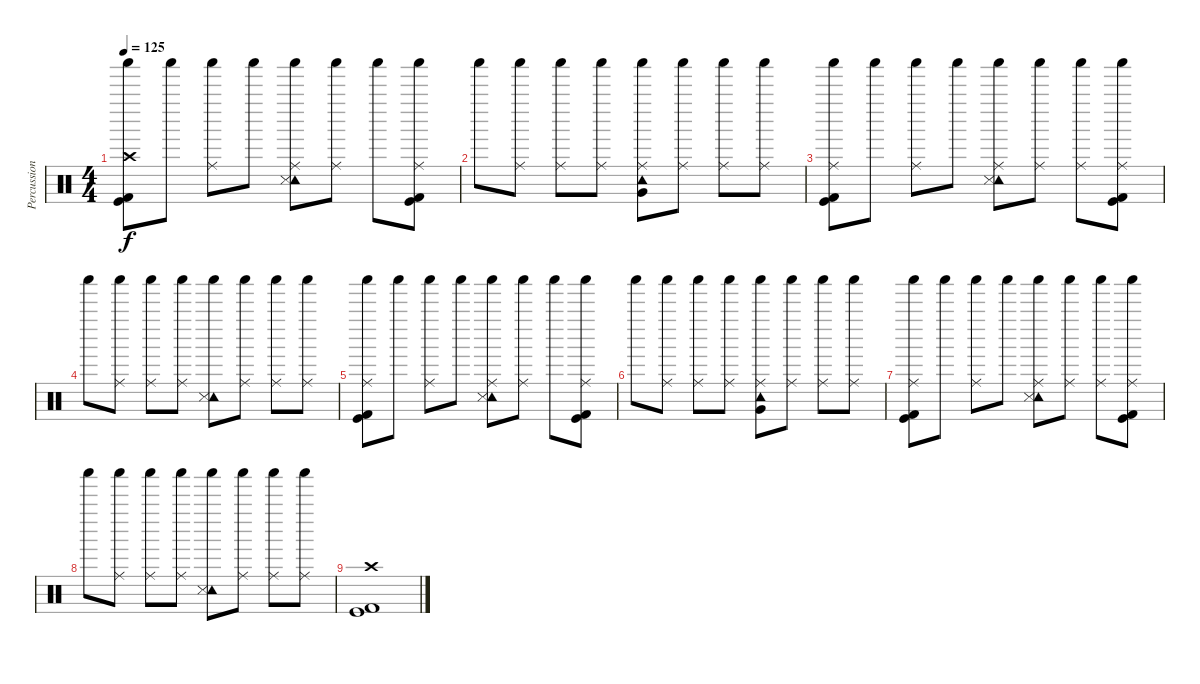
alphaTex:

\track ("Percussioni" "Percussion") {instrument percussion}
\staff {score}
\articulation defaults
\ts (4 4)
\tempo 125
\clef neutral
\ks c
("Crash high (hit)" "Shaker (hit)" "Kick (hit)" "Kick (hit) 2").8{dy f} "Shaker (hit)".8 ("Shaker (hit)" "Ride (middle)").8 "Shaker (hit)".8 ("Shaker (hit)" "Ride (middle)" "Tambourine (hit)" "Snare (side stick) 3").8 ("Shaker (hit)" "Ride (middle)").8 "Shaker (hit)".8 ("Shaker (hit)" "Ride (middle)" "Kick (hit)" "Kick (hit) 2").8 |
"Shaker (hit)".8 ("Shaker (hit)" "Ride (middle)").8 ("Shaker (hit)" "Ride (middle)").8 ("Shaker (hit)" "Ride (middle)").8 ("Shaker (hit)" "Ride (middle)" "Tambourine (hit)" "Very Low Tom (hit)").8 ("Shaker (hit)" "Ride (middle)").8 ("Shaker (hit)" "Ride (middle)").8 ("Shaker (hit)" "Ride (middle)").8 |
("Shaker (hit)" "Ride (middle)" "Kick (hit)" "Kick (hit) 2").8 "Shaker (hit)".8 ("Shaker (hit)" "Ride (middle)").8 "Shaker (hit)".8 ("Shaker (hit)" "Ride (middle)" "Tambourine (hit)" "Snare (side stick) 3").8 ("Shaker (hit)" "Ride (middle)").8 ("Shaker (hit)" "Ride (middle)").8 ("Shaker (hit)" "Ride (middle)" "Kick (hit)" "Kick (hit) 2").8 |
"Shaker (hit)".8 ("Shaker (hit)" "Ride (middle)").8 ("Shaker (hit)" "Ride (middle)").8 ("Shaker (hit)" "Ride (middle)").8 ("Shaker (hit)" "Tambourine (hit)" "Snare (side stick) 3").8 ("Shaker (hit)" "Ride (middle)").8 ("Shaker (hit)" "Ride (middle)").8 ("Shaker (hit)" "Ride (middle)").8 |
("Shaker (hit)" "Ride (middle)" "Kick (hit)" "Kick (hit) 2").8 "Shaker (hit)".8 ("Shaker (hit)" "Ride (middle)").8 "Shaker (hit)".8 ("Shaker (hit)" "Ride (middle)" "Tambourine (hit)" "Snare (side stick) 3").8 ("Shaker (hit)" "Ride (middle)").8 "Shaker (hit)".8 ("Shaker (hit)" "Ride (middle)" "Kick (hit)" "Kick (hit) 2").8 |
"Shaker (hit)".8 ("Shaker (hit)" "Ride (middle)").8 ("Shaker (hit)" "Ride (middle)").8 ("Shaker (hit)" "Ride (middle)").8 ("Shaker (hit)" "Ride (middle)" "Tambourine (hit)" "Very Low Tom (hit)").8 ("Shaker (hit)" "Ride (middle)").8 ("Shaker (hit)" "Ride (middle)").8 ("Shaker (hit)" "Ride (middle)").8 |
("Shaker (hit)" "Ride (middle)" "Kick (hit)" "Kick (hit) 2").8 "Shaker (hit)".8 ("Shaker (hit)" "Ride (middle)").8 "Shaker (hit)".8 ("Shaker (hit)" "Ride (middle)" "Tambourine (hit)" "Snare (side stick) 3").8 ("Shaker (hit)" "Ride (middle)").8 ("Shaker (hit)" "Ride (middle)").8 ("Shaker (hit)" "Ride (middle)" "Kick (hit)" "Kick (hit) 2").8 |
"Shaker (hit)".8 ("Shaker (hit)" "Ride (middle)").8 ("Shaker (hit)" "Ride (middle)").8 ("Shaker (hit)" "Ride (middle)").8 ("Shaker (hit)" "Tambourine (hit)" "Snare (side stick) 3").8 ("Shaker (hit)" "Ride (middle)").8 ("Shaker (hit)" "Ride (middle)").8 ("Shaker (hit)" "Ride (middle)").8 |
("Crash high (hit)" "Kick (hit)" "Kick (hit) 2").1
